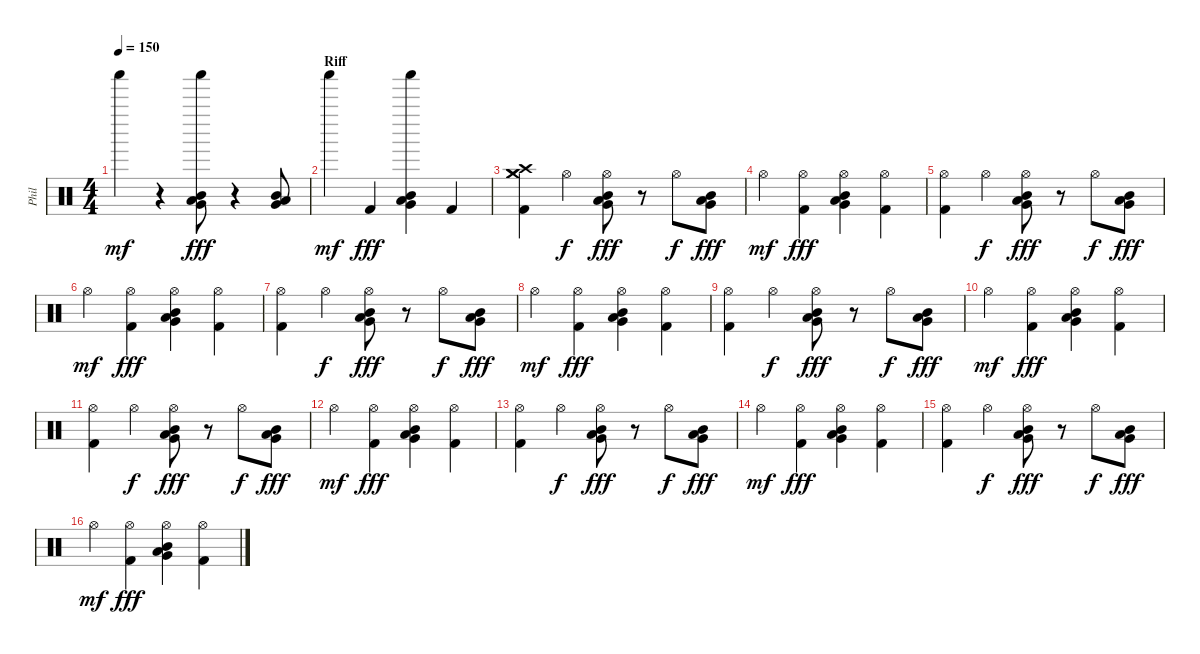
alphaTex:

\track ("Phil" "Phil") {instrument percussion}
\staff {score}
\articulation defaults
\ts (4 4)
\tempo 150
\clef neutral
\ks c "Shaker (hit)".4{dy mf}
r.4 ("Shaker (hit)" "Mid Tom (hit)" "Very Low Tom (hit)" "Low Floor Tom (hit)").8{dy fff} r.4 ("Mid Tom (hit)" "Very Low Tom (hit)" "Low Floor Tom (hit)").8 |
\section ("" "Riff")
"Shaker (hit)".4{dy mf} "Kick (hit) 2".4{dy fff} ("Shaker (hit)" "Very Low Tom (hit)" "Low Floor Tom (hit)" "Mid Tom (hit)").4 "Kick (hit) 2".4 |
("Crash high (hit)" "Crash medium (hit)" "Crash medium (hit)" "Kick (hit) 2").4 "Hi-Hat (open)".4{dy f} ("Hi-Hat (open)" "Mid Tom (hit)" "Low Floor Tom (hit)" "Very Low Tom (hit)").8{dy fff} r.8 "Hi-Hat (open)".8{dy f} ("Very Low Tom (hit)" "Mid Tom (hit)" "Low Floor Tom (hit)").8{dy fff} |
"Hi-Hat (open)".4{dy mf} ("Hi-Hat (open)" "Kick (hit) 2").4{dy fff} ("Hi-Hat (open)" "Mid Tom (hit)" "Very Low Tom (hit)" "Low Floor Tom (hit)").4 ("Hi-Hat (open)" "Kick (hit) 2").4 |
("Hi-Hat (open)" "Kick (hit) 2").4 "Hi-Hat (open)".4{dy f} ("Hi-Hat (open)" "Mid Tom (hit)" "Low Floor Tom (hit)" "Very Low Tom (hit)").8{dy fff} r.8 "Hi-Hat (open)".8{dy f} ("Very Low Tom (hit)" "Mid Tom (hit)" "Low Floor Tom (hit)").8{dy fff} |
"Hi-Hat (open)".4{dy mf} ("Hi-Hat (open)" "Kick (hit) 2").4{dy fff} ("Hi-Hat (open)" "Mid Tom (hit)" "Very Low Tom (hit)" "Low Floor Tom (hit)").4 ("Hi-Hat (open)" "Kick (hit) 2").4 |
("Hi-Hat (open)" "Kick (hit) 2").4 "Hi-Hat (open)".4{dy f} ("Hi-Hat (open)" "Mid Tom (hit)" "Low Floor Tom (hit)" "Very Low Tom (hit)").8{dy fff} r.8 "Hi-Hat (open)".8{dy f} ("Very Low Tom (hit)" "Mid Tom (hit)" "Low Floor Tom (hit)").8{dy fff} |
"Hi-Hat (open)".4{dy mf} ("Hi-Hat (open)" "Kick (hit) 2").4{dy fff} ("Hi-Hat (open)" "Mid Tom (hit)" "Very Low Tom (hit)" "Low Floor Tom (hit)").4 ("Hi-Hat (open)" "Kick (hit) 2").4 |
("Hi-Hat (open)" "Kick (hit) 2").4 "Hi-Hat (open)".4{dy f} ("Hi-Hat (open)" "Mid Tom (hit)" "Low Floor Tom (hit)" "Very Low Tom (hit)").8{dy fff} r.8 "Hi-Hat (open)".8{dy f} ("Very Low Tom (hit)" "Mid Tom (hit)" "Low Floor Tom (hit)").8{dy fff} |
"Hi-Hat (open)".4{dy mf} ("Hi-Hat (open)" "Kick (hit) 2").4{dy fff} ("Hi-Hat (open)" "Mid Tom (hit)" "Very Low Tom (hit)" "Low Floor Tom (hit)").4 ("Hi-Hat (open)" "Kick (hit) 2").4 |
("Hi-Hat (open)" "Kick (hit) 2").4 "Hi-Hat (open)".4{dy f} ("Hi-Hat (open)" "Mid Tom (hit)" "Low Floor Tom (hit)" "Very Low Tom (hit)").8{dy fff} r.8 "Hi-Hat (open)".8{dy f} ("Very Low Tom (hit)" "Mid Tom (hit)" "Low Floor Tom (hit)").8{dy fff} |
"Hi-Hat (open)".4{dy mf} ("Hi-Hat (open)" "Kick (hit) 2").4{dy fff} ("Hi-Hat (open)" "Mid Tom (hit)" "Very Low Tom (hit)" "Low Floor Tom (hit)").4 ("Hi-Hat (open)" "Kick (hit) 2").4 |
("Hi-Hat (open)" "Kick (hit) 2").4 "Hi-Hat (open)".4{dy f} ("Hi-Hat (open)" "Mid Tom (hit)" "Low Floor Tom (hit)" "Very Low Tom (hit)").8{dy fff} r.8 "Hi-Hat (open)".8{dy f} ("Very Low Tom (hit)" "Mid Tom (hit)" "Low Floor Tom (hit)").8{dy fff} |
"Hi-Hat (open)".4{dy mf} ("Hi-Hat (open)" "Kick (hit) 2").4{dy fff} ("Hi-Hat (open)" "Mid Tom (hit)" "Very Low Tom (hit)" "Low Floor Tom (hit)").4 ("Hi-Hat (open)" "Kick (hit) 2").4 |
("Hi-Hat (open)" "Kick (hit) 2").4 "Hi-Hat (open)".4{dy f} ("Hi-Hat (open)" "Mid Tom (hit)" "Low Floor Tom (hit)" "Very Low Tom (hit)").8{dy fff} r.8 "Hi-Hat (open)".8{dy f} ("Very Low Tom (hit)" "Mid Tom (hit)" "Low Floor Tom (hit)").8{dy fff} |
"Hi-Hat (open)".4{dy mf} ("Hi-Hat (open)" "Kick (hit) 2").4{dy fff} ("Hi-Hat (open)" "Mid Tom (hit)" "Very Low Tom (hit)" "Low Floor Tom (hit)").4 ("Hi-Hat (open)" "Kick (hit) 2").4
